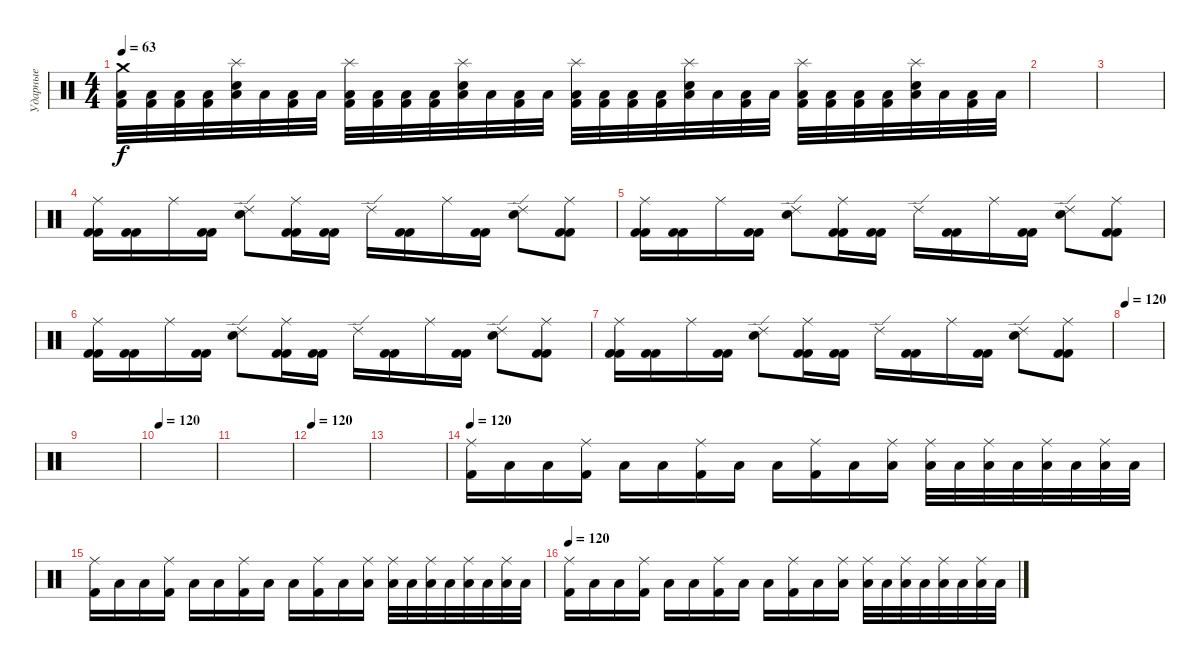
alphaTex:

\track ("Ударные" "Ударные") {instrument percussion}
\staff {score}
\articulation defaults
\ts (4 4)
\tempo 63
\clef neutral
\ks c
("Crash medium (hit)" "Low Floor Tom (hit)" "Kick (hit) 2").32{dy f} ("Low Floor Tom (hit)" "Kick (hit) 2").32 ("Low Floor Tom (hit)" "Kick (hit) 2").32 ("Low Floor Tom (hit)" "Kick (hit) 2").32 ("Splash (hit)" "Low Floor Tom (hit)" "Electric Snare (hit)").32 "Low Floor Tom (hit)".32 ("Low Floor Tom (hit)" "Kick (hit) 2").32 "Low Floor Tom (hit)".32 ("Splash (hit)" "Low Floor Tom (hit)" "Kick (hit) 2").32 ("Low Floor Tom (hit)" "Kick (hit) 2").32 ("Low Floor Tom (hit)" "Kick (hit) 2").32 ("Low Floor Tom (hit)" "Kick (hit) 2").32 ("Splash (hit)" "Low Floor Tom (hit)" "Electric Snare (hit)").32 "Low Floor Tom (hit)".32 ("Low Floor Tom (hit)" "Kick (hit) 2").32 "Low Floor Tom (hit)".32 ("Splash (hit)" "Low Floor Tom (hit)" "Kick (hit) 2").32 ("Low Floor Tom (hit)" "Kick (hit) 2").32 ("Low Floor Tom (hit)" "Kick (hit) 2").32 ("Low Floor Tom (hit)" "Kick (hit) 2").32 ("Splash (hit)" "Low Floor Tom (hit)" "Electric Snare (hit)").32 "Low Floor Tom (hit)".32 ("Low Floor Tom (hit)" "Kick (hit) 2").32 "Low Floor Tom (hit)".32 ("Splash (hit)" "Low Floor Tom (hit)" "Kick (hit) 2").32 ("Low Floor Tom (hit)" "Kick (hit) 2").32 ("Low Floor Tom (hit)" "Kick (hit) 2").32 ("Low Floor Tom (hit)" "Kick (hit) 2").32 ("Splash (hit)" "Low Floor Tom (hit)" "Electric Snare (hit)").32 "Low Floor Tom (hit)".32 ("Low Floor Tom (hit)" "Kick (hit) 2").32 "Low Floor Tom (hit)".32 |
|
|
("Kick (hit) 2" "Ride (middle)" "Kick (hit) 2").16 ("Kick (hit) 2" "Kick (hit) 2").16 "Ride (middle)".16 ("Kick (hit) 2" "Kick (hit) 2").16 ("Ride (edge) 2" "Electric Snare (hit)").8 ("Kick (hit) 2" "Ride (middle)" "Kick (hit) 2").16 ("Kick (hit) 2" "Kick (hit) 2").16 "Ride (edge) 2".16 ("Kick (hit) 2" "Kick (hit) 2").16 "Ride (middle)".16 ("Kick (hit) 2" "Kick (hit) 2").16 ("Ride (edge) 2" "Electric Snare (hit)").8 ("Kick (hit) 2" "Ride (middle)" "Kick (hit) 2").8 |
("Kick (hit) 2" "Ride (middle)" "Kick (hit) 2").16 ("Kick (hit) 2" "Kick (hit) 2").16 "Ride (middle)".16 ("Kick (hit) 2" "Kick (hit) 2").16 ("Ride (edge) 2" "Electric Snare (hit)").8 ("Kick (hit) 2" "Ride (middle)" "Kick (hit) 2").16 ("Kick (hit) 2" "Kick (hit) 2").16 "Ride (edge) 2".16 ("Kick (hit) 2" "Kick (hit) 2").16 "Ride (middle)".16 ("Kick (hit) 2" "Kick (hit) 2").16 ("Ride (edge) 2" "Electric Snare (hit)").8 ("Kick (hit) 2" "Ride (middle)" "Kick (hit) 2").8 |
("Kick (hit) 2" "Ride (middle)" "Kick (hit) 2").16 ("Kick (hit) 2" "Kick (hit) 2").16 "Ride (middle)".16 ("Kick (hit) 2" "Kick (hit) 2").16 ("Ride (edge) 2" "Electric Snare (hit)").8 ("Kick (hit) 2" "Ride (middle)" "Kick (hit) 2").16 ("Kick (hit) 2" "Kick (hit) 2").16 "Ride (edge) 2".16 ("Kick (hit) 2" "Kick (hit) 2").16 "Ride (middle)".16 ("Kick (hit) 2" "Kick (hit) 2").16 ("Ride (edge) 2" "Electric Snare (hit)").8 ("Kick (hit) 2" "Ride (middle)" "Kick (hit) 2").8 |
("Kick (hit) 2" "Ride (middle)" "Kick (hit) 2").16 ("Kick (hit) 2" "Kick (hit) 2").16 "Ride (middle)".16 ("Kick (hit) 2" "Kick (hit) 2").16 ("Ride (edge) 2" "Electric Snare (hit)").8 ("Kick (hit) 2" "Ride (middle)" "Kick (hit) 2").16 ("Kick (hit) 2" "Kick (hit) 2").16 "Ride (edge) 2".16 ("Kick (hit) 2" "Kick (hit) 2").16 "Ride (middle)".16 ("Kick (hit) 2" "Kick (hit) 2").16 ("Ride (edge) 2" "Electric Snare (hit)").8 ("Kick (hit) 2" "Ride (middle)" "Kick (hit) 2").8 |
\tempo 120
|
|
\tempo 120
|
|
\tempo 120
|
|
\tempo 120
("Ride (middle)" "Kick (hit) 2").16 "Low Floor Tom (hit)".16 "Low Floor Tom (hit)".16 ("Ride (middle)" "Kick (hit) 2").16 "Low Floor Tom (hit)".16 "Low Floor Tom (hit)".16 ("Ride (middle)" "Kick (hit) 2").16 "Low Floor Tom (hit)".16 "Low Floor Tom (hit)".16 ("Ride (middle)" "Kick (hit) 2").16 "Low Floor Tom (hit)".16 ("Ride (middle)" "Low Floor Tom (hit)").16 ("Ride (middle)" "Low Floor Tom (hit)").32 "Low Floor Tom (hit)".32 ("Ride (middle)" "Low Floor Tom (hit)").32 "Low Floor Tom (hit)".32 ("Ride (middle)" "Low Floor Tom (hit)").32 "Low Floor Tom (hit)".32 ("Ride (middle)" "Low Floor Tom (hit)").32 "Low Floor Tom (hit)".32 |
("Ride (middle)" "Kick (hit) 2").16 "Low Floor Tom (hit)".16 "Low Floor Tom (hit)".16 ("Ride (middle)" "Kick (hit) 2").16 "Low Floor Tom (hit)".16 "Low Floor Tom (hit)".16 ("Ride (middle)" "Kick (hit) 2").16 "Low Floor Tom (hit)".16 "Low Floor Tom (hit)".16 ("Ride (middle)" "Kick (hit) 2").16 "Low Floor Tom (hit)".16 ("Ride (middle)" "Low Floor Tom (hit)").16 ("Ride (middle)" "Low Floor Tom (hit)").32 "Low Floor Tom (hit)".32 ("Ride (middle)" "Low Floor Tom (hit)").32 "Low Floor Tom (hit)".32 ("Ride (middle)" "Low Floor Tom (hit)").32 "Low Floor Tom (hit)".32 ("Ride (middle)" "Low Floor Tom (hit)").32 "Low Floor Tom (hit)".32 |
\tempo 120
("Ride (middle)" "Kick (hit) 2").16 "Low Floor Tom (hit)".16 "Low Floor Tom (hit)".16 ("Ride (middle)" "Kick (hit) 2").16 "Low Floor Tom (hit)".16 "Low Floor Tom (hit)".16 ("Ride (middle)" "Kick (hit) 2").16 "Low Floor Tom (hit)".16 "Low Floor Tom (hit)".16 ("Ride (middle)" "Kick (hit) 2").16 "Low Floor Tom (hit)".16 ("Ride (middle)" "Low Floor Tom (hit)").16 ("Ride (middle)" "Low Floor Tom (hit)").32 "Low Floor Tom (hit)".32 ("Ride (middle)" "Low Floor Tom (hit)").32 "Low Floor Tom (hit)".32 ("Ride (middle)" "Low Floor Tom (hit)").32 "Low Floor Tom (hit)".32 ("Ride (middle)" "Low Floor Tom (hit)").32 "Low Floor Tom (hit)".32
